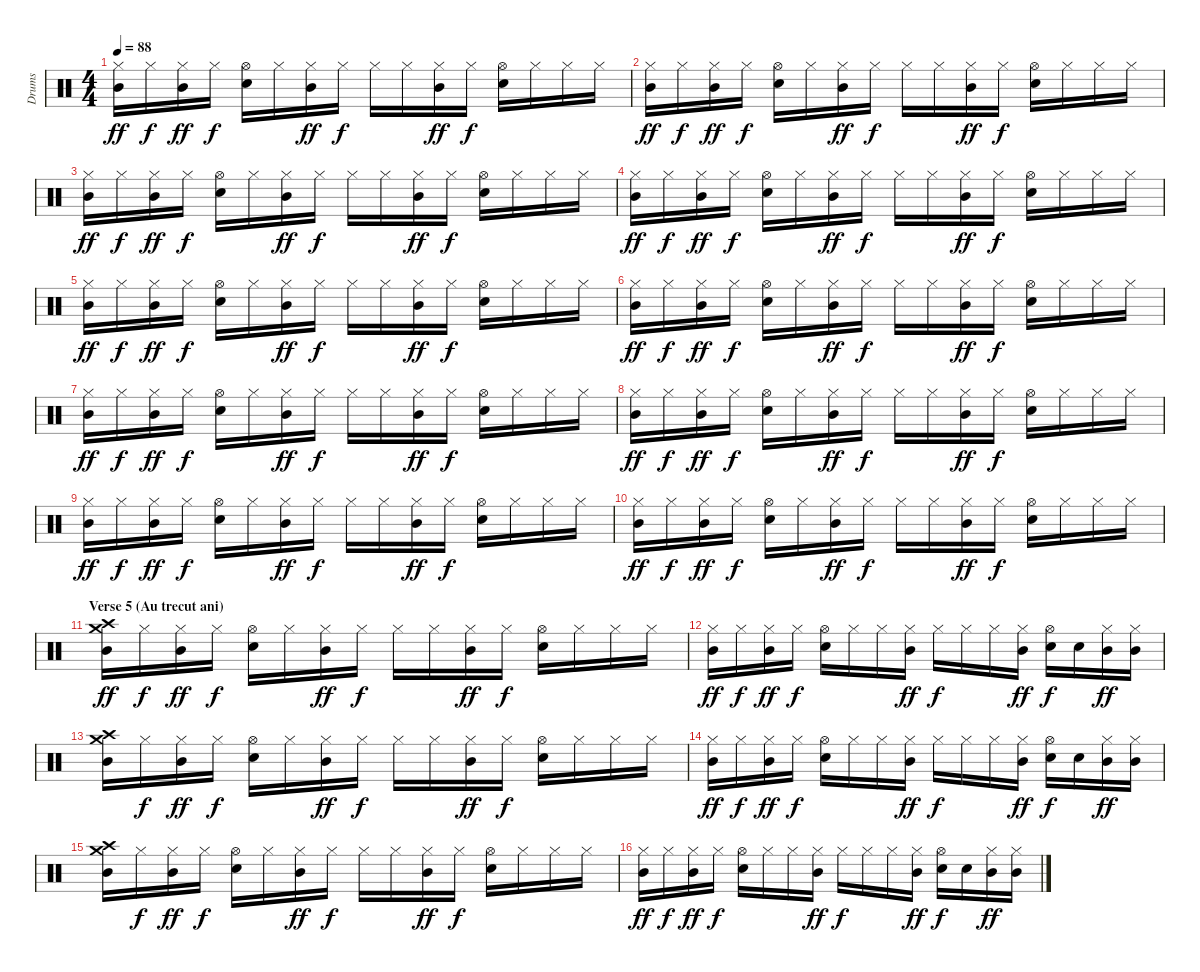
\track ("Drums" "Drums") {instrument percussion}
\staff {score}
\articulation defaults
\ts (4 4)
\tempo 88
\clef neutral
\ks c
("Hi-Hat (closed)" "Mid Tom (hit)").16{dy ff} "Hi-Hat (closed)".16{dy f} ("Hi-Hat (closed)" "Mid Tom (hit)").16{dy ff} "Hi-Hat (closed)".16{dy f} ("Hi-Hat (open)" "Electric Snare (hit)").16 "Hi-Hat (closed)".16 ("Hi-Hat (closed)" "Mid Tom (hit)").16{dy ff} "Hi-Hat (closed)".16{dy f} "Hi-Hat (closed)".16 "Hi-Hat (closed)".16 ("Hi-Hat (closed)" "Mid Tom (hit)").16{dy ff} "Hi-Hat (closed)".16{dy f} ("Hi-Hat (open)" "Electric Snare (hit)").16 "Hi-Hat (closed)".16 "Hi-Hat (closed)".16 "Hi-Hat (closed)".16 |
("Hi-Hat (closed)" "Mid Tom (hit)").16{dy ff} "Hi-Hat (closed)".16{dy f} ("Hi-Hat (closed)" "Mid Tom (hit)").16{dy ff} "Hi-Hat (closed)".16{dy f} ("Hi-Hat (open)" "Electric Snare (hit)").16 "Hi-Hat (closed)".16 ("Hi-Hat (closed)" "Mid Tom (hit)").16{dy ff} "Hi-Hat (closed)".16{dy f} "Hi-Hat (closed)".16 "Hi-Hat (closed)".16 ("Hi-Hat (closed)" "Mid Tom (hit)").16{dy ff} "Hi-Hat (closed)".16{dy f} ("Hi-Hat (open)" "Electric Snare (hit)").16 "Hi-Hat (closed)".16 "Hi-Hat (closed)".16 "Hi-Hat (closed)".16 |
("Hi-Hat (closed)" "Mid Tom (hit)").16{dy ff} "Hi-Hat (closed)".16{dy f} ("Hi-Hat (closed)" "Mid Tom (hit)").16{dy ff} "Hi-Hat (closed)".16{dy f} ("Hi-Hat (open)" "Electric Snare (hit)").16 "Hi-Hat (closed)".16 ("Hi-Hat (closed)" "Mid Tom (hit)").16{dy ff} "Hi-Hat (closed)".16{dy f} "Hi-Hat (closed)".16 "Hi-Hat (closed)".16 ("Hi-Hat (closed)" "Mid Tom (hit)").16{dy ff} "Hi-Hat (closed)".16{dy f} ("Hi-Hat (open)" "Electric Snare (hit)").16 "Hi-Hat (closed)".16 "Hi-Hat (closed)".16 "Hi-Hat (closed)".16 |
("Hi-Hat (closed)" "Mid Tom (hit)").16{dy ff} "Hi-Hat (closed)".16{dy f} ("Hi-Hat (closed)" "Mid Tom (hit)").16{dy ff} "Hi-Hat (closed)".16{dy f} ("Hi-Hat (open)" "Electric Snare (hit)").16 "Hi-Hat (closed)".16 ("Hi-Hat (closed)" "Mid Tom (hit)").16{dy ff} "Hi-Hat (closed)".16{dy f} "Hi-Hat (closed)".16 "Hi-Hat (closed)".16 ("Hi-Hat (closed)" "Mid Tom (hit)").16{dy ff} "Hi-Hat (closed)".16{dy f} ("Hi-Hat (open)" "Electric Snare (hit)").16 "Hi-Hat (closed)".16 "Hi-Hat (closed)".16 "Hi-Hat (closed)".16 |
("Hi-Hat (closed)" "Mid Tom (hit)").16{dy ff} "Hi-Hat (closed)".16{dy f} ("Hi-Hat (closed)" "Mid Tom (hit)").16{dy ff} "Hi-Hat (closed)".16{dy f} ("Hi-Hat (open)" "Electric Snare (hit)").16 "Hi-Hat (closed)".16 ("Hi-Hat (closed)" "Mid Tom (hit)").16{dy ff} "Hi-Hat (closed)".16{dy f} "Hi-Hat (closed)".16 "Hi-Hat (closed)".16 ("Hi-Hat (closed)" "Mid Tom (hit)").16{dy ff} "Hi-Hat (closed)".16{dy f} ("Hi-Hat (open)" "Electric Snare (hit)").16 "Hi-Hat (closed)".16 "Hi-Hat (closed)".16 "Hi-Hat (closed)".16 |
("Hi-Hat (closed)" "Mid Tom (hit)").16{dy ff} "Hi-Hat (closed)".16{dy f} ("Hi-Hat (closed)" "Mid Tom (hit)").16{dy ff} "Hi-Hat (closed)".16{dy f} ("Hi-Hat (open)" "Electric Snare (hit)").16 "Hi-Hat (closed)".16 ("Hi-Hat (closed)" "Mid Tom (hit)").16{dy ff} "Hi-Hat (closed)".16{dy f} "Hi-Hat (closed)".16 "Hi-Hat (closed)".16 ("Hi-Hat (closed)" "Mid Tom (hit)").16{dy ff} "Hi-Hat (closed)".16{dy f} ("Hi-Hat (open)" "Electric Snare (hit)").16 "Hi-Hat (closed)".16 "Hi-Hat (closed)".16 "Hi-Hat (closed)".16 |
("Hi-Hat (closed)" "Mid Tom (hit)").16{dy ff} "Hi-Hat (closed)".16{dy f} ("Hi-Hat (closed)" "Mid Tom (hit)").16{dy ff} "Hi-Hat (closed)".16{dy f} ("Hi-Hat (open)" "Electric Snare (hit)").16 "Hi-Hat (closed)".16 ("Hi-Hat (closed)" "Mid Tom (hit)").16{dy ff} "Hi-Hat (closed)".16{dy f} "Hi-Hat (closed)".16 "Hi-Hat (closed)".16 ("Hi-Hat (closed)" "Mid Tom (hit)").16{dy ff} "Hi-Hat (closed)".16{dy f} ("Hi-Hat (open)" "Electric Snare (hit)").16 "Hi-Hat (closed)".16 "Hi-Hat (closed)".16 "Hi-Hat (closed)".16 |
("Hi-Hat (closed)" "Mid Tom (hit)").16{dy ff} "Hi-Hat (closed)".16{dy f} ("Hi-Hat (closed)" "Mid Tom (hit)").16{dy ff} "Hi-Hat (closed)".16{dy f} ("Hi-Hat (open)" "Electric Snare (hit)").16 "Hi-Hat (closed)".16 ("Hi-Hat (closed)" "Mid Tom (hit)").16{dy ff} "Hi-Hat (closed)".16{dy f} "Hi-Hat (closed)".16 "Hi-Hat (closed)".16 ("Hi-Hat (closed)" "Mid Tom (hit)").16{dy ff} "Hi-Hat (closed)".16{dy f} ("Hi-Hat (open)" "Electric Snare (hit)").16 "Hi-Hat (closed)".16 "Hi-Hat (closed)".16 "Hi-Hat (closed)".16 |
("Hi-Hat (closed)" "Mid Tom (hit)").16{dy ff} "Hi-Hat (closed)".16{dy f} ("Hi-Hat (closed)" "Mid Tom (hit)").16{dy ff} "Hi-Hat (closed)".16{dy f} ("Hi-Hat (open)" "Electric Snare (hit)").16 "Hi-Hat (closed)".16 ("Hi-Hat (closed)" "Mid Tom (hit)").16{dy ff} "Hi-Hat (closed)".16{dy f} "Hi-Hat (closed)".16 "Hi-Hat (closed)".16 ("Hi-Hat (closed)" "Mid Tom (hit)").16{dy ff} "Hi-Hat (closed)".16{dy f} ("Hi-Hat (open)" "Electric Snare (hit)").16 "Hi-Hat (closed)".16 "Hi-Hat (closed)".16 "Hi-Hat (closed)".16 |
("Hi-Hat (closed)" "Mid Tom (hit)").16{dy ff} "Hi-Hat (closed)".16{dy f} ("Hi-Hat (closed)" "Mid Tom (hit)").16{dy ff} "Hi-Hat (closed)".16{dy f} ("Hi-Hat (open)" "Electric Snare (hit)").16 "Hi-Hat (closed)".16 ("Hi-Hat (closed)" "Mid Tom (hit)").16{dy ff} "Hi-Hat (closed)".16{dy f} "Hi-Hat (closed)".16 "Hi-Hat (closed)".16 ("Hi-Hat (closed)" "Mid Tom (hit)").16{dy ff} "Hi-Hat (closed)".16{dy f} ("Hi-Hat (open)" "Electric Snare (hit)").16 "Hi-Hat (closed)".16 "Hi-Hat (closed)".16 "Hi-Hat (closed)".16 |
\section ("" "Verse 5 (Au trecut ani)")
("Crash medium (hit)" "Crash high (hit)" "Mid Tom (hit)").16{dy ff} "Hi-Hat (closed)".16{dy f} ("Hi-Hat (closed)" "Mid Tom (hit)").16{dy ff} "Hi-Hat (closed)".16{dy f} ("Hi-Hat (open)" "Electric Snare (hit)").16 "Hi-Hat (closed)".16 ("Hi-Hat (closed)" "Mid Tom (hit)").16{dy ff} "Hi-Hat (closed)".16{dy f} "Hi-Hat (closed)".16 "Hi-Hat (closed)".16 ("Hi-Hat (closed)" "Mid Tom (hit)").16{dy ff} "Hi-Hat (closed)".16{dy f} ("Hi-Hat (open)" "Electric Snare (hit)").16 "Hi-Hat (closed)".16 "Hi-Hat (closed)".16 "Hi-Hat (closed)".16 |
("Hi-Hat (closed)" "Mid Tom (hit)").16{dy ff} "Hi-Hat (closed)".16{dy f} ("Hi-Hat (closed)" "Mid Tom (hit)").16{dy ff} "Hi-Hat (closed)".16{dy f} ("Hi-Hat (open)" "Electric Snare (hit)").16 "Hi-Hat (closed)".16 "Hi-Hat (closed)".16 ("Hi-Hat (closed)" "Mid Tom (hit)").16{dy ff} "Hi-Hat (closed)".16{dy f} "Hi-Hat (closed)".16 "Hi-Hat (closed)".16 ("Hi-Hat (closed)" "Mid Tom (hit)").16{dy ff} ("Hi-Hat (open)" "Electric Snare (hit)").16{dy f} "Electric Snare (hit)".16 ("Hi-Hat (closed)" "Mid Tom (hit)").16{dy ff} ("Hi-Hat (closed)" "Mid Tom (hit)").16 |
("Crash medium (hit)" "Crash high (hit)" "Mid Tom (hit)").16 "Hi-Hat (closed)".16{dy f} ("Hi-Hat (closed)" "Mid Tom (hit)").16{dy ff} "Hi-Hat (closed)".16{dy f} ("Hi-Hat (open)" "Electric Snare (hit)").16 "Hi-Hat (closed)".16 ("Hi-Hat (closed)" "Mid Tom (hit)").16{dy ff} "Hi-Hat (closed)".16{dy f} "Hi-Hat (closed)".16 "Hi-Hat (closed)".16 ("Hi-Hat (closed)" "Mid Tom (hit)").16{dy ff} "Hi-Hat (closed)".16{dy f} ("Hi-Hat (open)" "Electric Snare (hit)").16 "Hi-Hat (closed)".16 "Hi-Hat (closed)".16 "Hi-Hat (closed)".16 |
("Hi-Hat (closed)" "Mid Tom (hit)").16{dy ff} "Hi-Hat (closed)".16{dy f} ("Hi-Hat (closed)" "Mid Tom (hit)").16{dy ff} "Hi-Hat (closed)".16{dy f} ("Hi-Hat (open)" "Electric Snare (hit)").16 "Hi-Hat (closed)".16 "Hi-Hat (closed)".16 ("Hi-Hat (closed)" "Mid Tom (hit)").16{dy ff} "Hi-Hat (closed)".16{dy f} "Hi-Hat (closed)".16 "Hi-Hat (closed)".16 ("Hi-Hat (closed)" "Mid Tom (hit)").16{dy ff} ("Hi-Hat (open)" "Electric Snare (hit)").16{dy f} "Electric Snare (hit)".16 ("Hi-Hat (closed)" "Mid Tom (hit)").16{dy ff} ("Hi-Hat (closed)" "Mid Tom (hit)").16 |
("Crash medium (hit)" "Crash high (hit)" "Mid Tom (hit)").16 "Hi-Hat (closed)".16{dy f} ("Hi-Hat (closed)" "Mid Tom (hit)").16{dy ff} "Hi-Hat (closed)".16{dy f} ("Hi-Hat (open)" "Electric Snare (hit)").16 "Hi-Hat (closed)".16 ("Hi-Hat (closed)" "Mid Tom (hit)").16{dy ff} "Hi-Hat (closed)".16{dy f} "Hi-Hat (closed)".16 "Hi-Hat (closed)".16 ("Hi-Hat (closed)" "Mid Tom (hit)").16{dy ff} "Hi-Hat (closed)".16{dy f} ("Hi-Hat (open)" "Electric Snare (hit)").16 "Hi-Hat (closed)".16 "Hi-Hat (closed)".16 "Hi-Hat (closed)".16 |
("Hi-Hat (closed)" "Mid Tom (hit)").16{dy ff} "Hi-Hat (closed)".16{dy f} ("Hi-Hat (closed)" "Mid Tom (hit)").16{dy ff} "Hi-Hat (closed)".16{dy f} ("Hi-Hat (open)" "Electric Snare (hit)").16 "Hi-Hat (closed)".16 "Hi-Hat (closed)".16 ("Hi-Hat (closed)" "Mid Tom (hit)").16{dy ff} "Hi-Hat (closed)".16{dy f} "Hi-Hat (closed)".16 "Hi-Hat (closed)".16 ("Hi-Hat (closed)" "Mid Tom (hit)").16{dy ff} ("Hi-Hat (open)" "Electric Snare (hit)").16{dy f} "Electric Snare (hit)".16 ("Hi-Hat (closed)" "Mid Tom (hit)").16{dy ff} ("Hi-Hat (closed)" "Mid Tom (hit)").16
